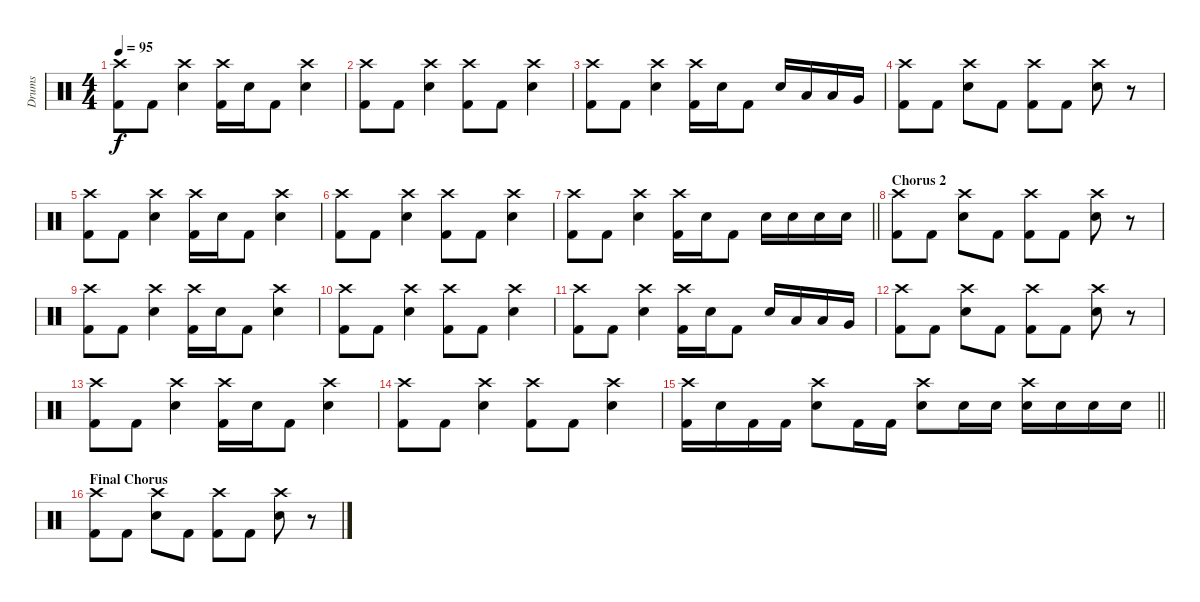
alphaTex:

\track ("Drums" "Drums") {instrument percussion}
\staff {score}
\articulation defaults
\ts (4 4)
\tempo 95
\clef neutral
\ks c
("Crash high (hit)" "Kick (hit) 2").8{dy f} "Kick (hit) 2".8 ("Crash high (hit)" "Electric Snare (hit)").4 ("Crash high (hit)" "Kick (hit) 2").16 "Electric Snare (hit)".16 "Kick (hit) 2".8 ("Crash high (hit)" "Electric Snare (hit)").4 |
("Crash high (hit)" "Kick (hit) 2").8 "Kick (hit) 2".8 ("Crash high (hit)" "Electric Snare (hit)").4 ("Crash high (hit)" "Kick (hit) 2").8 "Kick (hit) 2".8 ("Crash high (hit)" "Electric Snare (hit)").4 |
("Crash high (hit)" "Kick (hit) 2").8 "Kick (hit) 2".8 ("Crash high (hit)" "Electric Snare (hit)").4 ("Crash high (hit)" "Kick (hit) 2").16 "Electric Snare (hit)".16 "Kick (hit) 2".8 "Electric Snare (hit)".16 "Low Tom (hit)".16 "Low Tom (hit)".16 "Very Low Tom (hit)".16 |
("Crash high (hit)" "Kick (hit) 2").8 "Kick (hit) 2".8 ("Crash high (hit)" "Electric Snare (hit)").8 "Kick (hit) 2".8 ("Crash high (hit)" "Kick (hit) 2").8 "Kick (hit) 2".8 ("Crash high (hit)" "Electric Snare (hit)").8 r.8 |
("Crash high (hit)" "Kick (hit) 2").8 "Kick (hit) 2".8 ("Crash high (hit)" "Electric Snare (hit)").4 ("Crash high (hit)" "Kick (hit) 2").16 "Electric Snare (hit)".16 "Kick (hit) 2".8 ("Crash high (hit)" "Electric Snare (hit)").4 |
("Crash high (hit)" "Kick (hit) 2").8 "Kick (hit) 2".8 ("Crash high (hit)" "Electric Snare (hit)").4 ("Crash high (hit)" "Kick (hit) 2").8 "Kick (hit) 2".8 ("Crash high (hit)" "Electric Snare (hit)").4 |
\barLineRight lightlight
("Crash high (hit)" "Kick (hit) 2").8 "Kick (hit) 2".8 ("Crash high (hit)" "Electric Snare (hit)").4 ("Crash high (hit)" "Kick (hit) 2").16 "Electric Snare (hit)".16 "Kick (hit) 2".8 "Electric Snare (hit)".16 "Electric Snare (hit)".16 "Electric Snare (hit)".16 "Electric Snare (hit)".16 |
\section ("" "Chorus 2")
("Crash high (hit)" "Kick (hit) 2").8 "Kick (hit) 2".8 ("Crash high (hit)" "Electric Snare (hit)").8 "Kick (hit) 2".8 ("Crash high (hit)" "Kick (hit) 2").8 "Kick (hit) 2".8 ("Crash high (hit)" "Electric Snare (hit)").8 r.8 |
("Crash high (hit)" "Kick (hit) 2").8 "Kick (hit) 2".8 ("Crash high (hit)" "Electric Snare (hit)").4 ("Crash high (hit)" "Kick (hit) 2").16 "Electric Snare (hit)".16 "Kick (hit) 2".8 ("Crash high (hit)" "Electric Snare (hit)").4 |
("Crash high (hit)" "Kick (hit) 2").8 "Kick (hit) 2".8 ("Crash high (hit)" "Electric Snare (hit)").4 ("Crash high (hit)" "Kick (hit) 2").8 "Kick (hit) 2".8 ("Crash high (hit)" "Electric Snare (hit)").4 |
("Crash high (hit)" "Kick (hit) 2").8 "Kick (hit) 2".8 ("Crash high (hit)" "Electric Snare (hit)").4 ("Crash high (hit)" "Kick (hit) 2").16 "Electric Snare (hit)".16 "Kick (hit) 2".8 "Electric Snare (hit)".16 "Low Tom (hit)".16 "Low Tom (hit)".16 "Very Low Tom (hit)".16 |
("Crash high (hit)" "Kick (hit) 2").8 "Kick (hit) 2".8 ("Crash high (hit)" "Electric Snare (hit)").8 "Kick (hit) 2".8 ("Crash high (hit)" "Kick (hit) 2").8 "Kick (hit) 2".8 ("Crash high (hit)" "Electric Snare (hit)").8 r.8 |
("Crash high (hit)" "Kick (hit) 2").8 "Kick (hit) 2".8 ("Crash high (hit)" "Electric Snare (hit)").4 ("Crash high (hit)" "Kick (hit) 2").16 "Electric Snare (hit)".16 "Kick (hit) 2".8 ("Crash high (hit)" "Electric Snare (hit)").4 |
("Crash high (hit)" "Kick (hit) 2").8 "Kick (hit) 2".8 ("Crash high (hit)" "Electric Snare (hit)").4 ("Crash high (hit)" "Kick (hit) 2").8 "Kick (hit) 2".8 ("Crash high (hit)" "Electric Snare (hit)").4 |
\barLineRight lightlight
("Crash high (hit)" "Kick (hit) 2").16 "Electric Snare (hit)".16 "Kick (hit) 2".16 "Kick (hit) 2".16 ("Crash high (hit)" "Electric Snare (hit)").8 "Kick (hit) 2".16 "Kick (hit) 2".16 ("Crash high (hit)" "Electric Snare (hit)").8 "Electric Snare (hit)".16 "Electric Snare (hit)".16 ("Crash high (hit)" "Electric Snare (hit)").16 "Electric Snare (hit)".16 "Electric Snare (hit)".16 "Electric Snare (hit)".16 |
\section ("" "Final Chorus")
("Crash high (hit)" "Kick (hit) 2").8 "Kick (hit) 2".8 ("Crash high (hit)" "Electric Snare (hit)").8 "Kick (hit) 2".8 ("Crash high (hit)" "Kick (hit) 2").8 "Kick (hit) 2".8 ("Crash high (hit)" "Electric Snare (hit)").8 r.8
